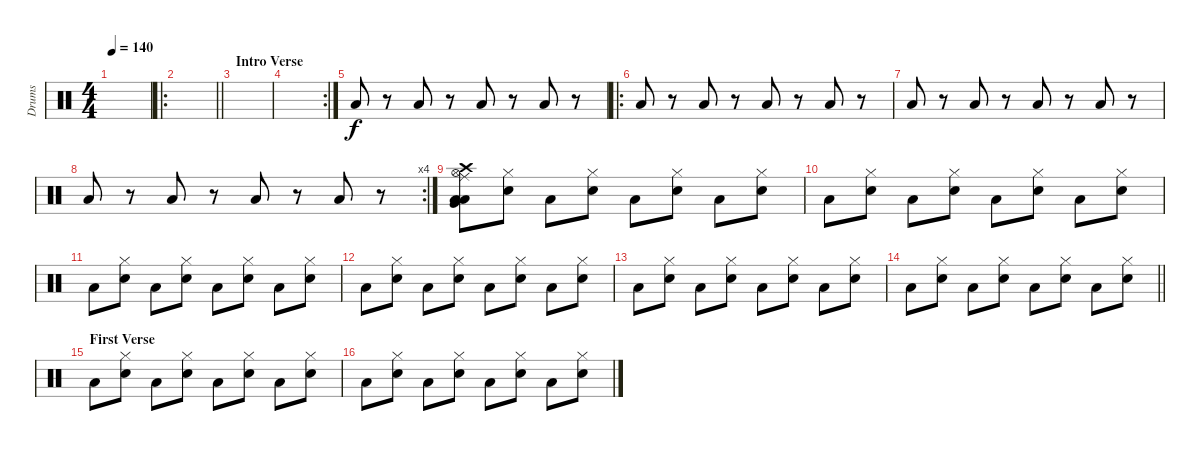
\track ("Drums" "Drums") {instrument percussion}
\staff {score}
\articulation defaults
\ts (4 4)
\tempo 140
\clef neutral
\ks c
|
\ro
\barLineRight lightlight
|
\section ("" "Intro Verse")
|
\rc 2
|
"Low Floor Tom (hit)".8 r.8 "Low Floor Tom (hit)".8 r.8 "Low Floor Tom (hit)".8 r.8 "Low Floor Tom (hit)".8 r.8 |
\ro "Low Floor Tom (hit)".8
r.8 "Low Floor Tom (hit)".8 r.8 "Low Floor Tom (hit)".8 r.8 "Low Floor Tom (hit)".8 r.8 |
"Low Floor Tom (hit)".8 r.8 "Low Floor Tom (hit)".8 r.8 "Low Floor Tom (hit)".8 r.8 "Low Floor Tom (hit)".8 r.8 |
\rc 4 "Low Floor Tom (hit)".8
r.8 "Low Floor Tom (hit)".8 r.8 "Low Floor Tom (hit)".8 r.8 "Low Floor Tom (hit)".8 r.8 |
("Ride (middle)" "Crash high (hit)" "Low Tom (hit)" "Hi-Hat (open)" "Very Low Tom (hit)" "Low Floor Tom (hit)").8 ("Hi-Hat (closed)" "Electric Snare (hit)").8 "Low Tom (hit)".8 ("Hi-Hat (closed)" "Electric Snare (hit)").8 "Low Tom (hit)".8 ("Hi-Hat (closed)" "Electric Snare (hit)").8 "Low Tom (hit)".8 ("Hi-Hat (closed)" "Electric Snare (hit)").8 |
"Low Tom (hit)".8 ("Hi-Hat (closed)" "Electric Snare (hit)").8 "Low Tom (hit)".8 ("Hi-Hat (closed)" "Electric Snare (hit)").8 "Low Tom (hit)".8 ("Hi-Hat (closed)" "Electric Snare (hit)").8 "Low Tom (hit)".8 ("Hi-Hat (closed)" "Electric Snare (hit)").8 |
"Low Tom (hit)".8 ("Hi-Hat (closed)" "Electric Snare (hit)").8 "Low Tom (hit)".8 ("Hi-Hat (closed)" "Electric Snare (hit)").8 "Low Tom (hit)".8 ("Hi-Hat (closed)" "Electric Snare (hit)").8 "Low Tom (hit)".8 ("Hi-Hat (closed)" "Electric Snare (hit)").8 |
"Low Tom (hit)".8 ("Hi-Hat (closed)" "Electric Snare (hit)").8 "Low Tom (hit)".8 ("Hi-Hat (closed)" "Electric Snare (hit)").8 "Low Tom (hit)".8 ("Hi-Hat (closed)" "Electric Snare (hit)").8 "Low Tom (hit)".8 ("Hi-Hat (closed)" "Electric Snare (hit)").8 |
"Low Tom (hit)".8 ("Hi-Hat (closed)" "Electric Snare (hit)").8 "Low Tom (hit)".8 ("Hi-Hat (closed)" "Electric Snare (hit)").8 "Low Tom (hit)".8 ("Hi-Hat (closed)" "Electric Snare (hit)").8 "Low Tom (hit)".8 ("Hi-Hat (closed)" "Electric Snare (hit)").8 |
\barLineRight lightlight "Low Tom (hit)".8
("Hi-Hat (closed)" "Electric Snare (hit)").8 "Low Tom (hit)".8 ("Hi-Hat (closed)" "Electric Snare (hit)").8 "Low Tom (hit)".8 ("Hi-Hat (closed)" "Electric Snare (hit)").8 "Low Tom (hit)".8 ("Hi-Hat (closed)" "Electric Snare (hit)").8 |
\section ("" "First Verse")
"Low Tom (hit)".8 ("Hi-Hat (closed)" "Electric Snare (hit)").8 "Low Tom (hit)".8 ("Hi-Hat (closed)" "Electric Snare (hit)").8 "Low Tom (hit)".8 ("Hi-Hat (closed)" "Electric Snare (hit)").8 "Low Tom (hit)".8 ("Hi-Hat (closed)" "Electric Snare (hit)").8 |
"Low Tom (hit)".8 ("Hi-Hat (closed)" "Electric Snare (hit)").8 "Low Tom (hit)".8 ("Hi-Hat (closed)" "Electric Snare (hit)").8 "Low Tom (hit)".8 ("Hi-Hat (closed)" "Electric Snare (hit)").8 "Low Tom (hit)".8 ("Hi-Hat (closed)" "Electric Snare (hit)").8
